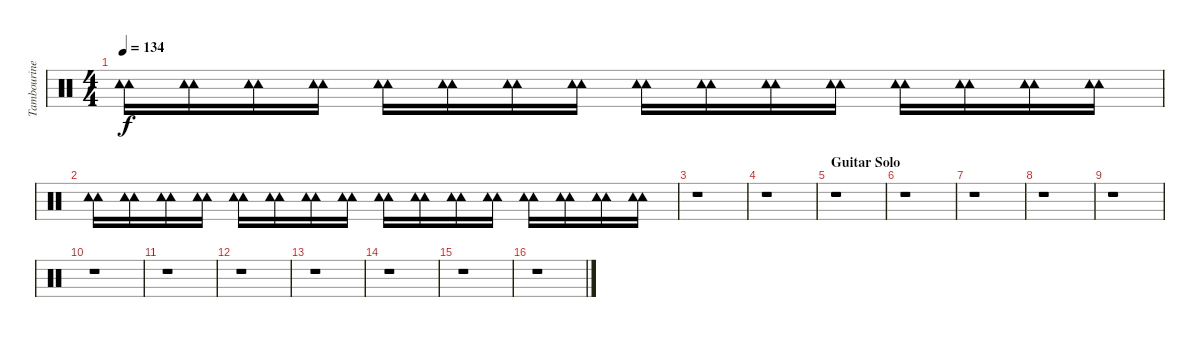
\track ("Tambourine" "Tambourine") {instrument percussion}
\staff {score}
\articulation defaults
\ts (4 4)
\tempo 134
\clef neutral
\ks c
("Tambourine (hit)" "Tambourine (hit)").16{dy f} ("Tambourine (hit)" "Tambourine (hit)").16 ("Tambourine (hit)" "Tambourine (hit)").16 ("Tambourine (hit)" "Tambourine (hit)").16 ("Tambourine (hit)" "Tambourine (hit)").16 ("Tambourine (hit)" "Tambourine (hit)").16 ("Tambourine (hit)" "Tambourine (hit)").16 ("Tambourine (hit)" "Tambourine (hit)").16 ("Tambourine (hit)" "Tambourine (hit)").16 ("Tambourine (hit)" "Tambourine (hit)").16 ("Tambourine (hit)" "Tambourine (hit)").16 ("Tambourine (hit)" "Tambourine (hit)").16 ("Tambourine (hit)" "Tambourine (hit)").16 ("Tambourine (hit)" "Tambourine (hit)").16 ("Tambourine (hit)" "Tambourine (hit)").16 ("Tambourine (hit)" "Tambourine (hit)").16 |
("Tambourine (hit)" "Tambourine (hit)").16 ("Tambourine (hit)" "Tambourine (hit)").16 ("Tambourine (hit)" "Tambourine (hit)").16 ("Tambourine (hit)" "Tambourine (hit)").16 ("Tambourine (hit)" "Tambourine (hit)").16 ("Tambourine (hit)" "Tambourine (hit)").16 ("Tambourine (hit)" "Tambourine (hit)").16 ("Tambourine (hit)" "Tambourine (hit)").16 ("Tambourine (hit)" "Tambourine (hit)").16 ("Tambourine (hit)" "Tambourine (hit)").16 ("Tambourine (hit)" "Tambourine (hit)").16 ("Tambourine (hit)" "Tambourine (hit)").16 ("Tambourine (hit)" "Tambourine (hit)").16 ("Tambourine (hit)" "Tambourine (hit)").16 ("Tambourine (hit)" "Tambourine (hit)").16 ("Tambourine (hit)" "Tambourine (hit)").16 |
r.1 |
r.1 |
\section ("" "Guitar Solo")
r.1 |
r.1 |
r.1 |
r.1 |
r.1 |
r.1 |
r.1 |
r.1 |
r.1 |
r.1 |
r.1 |
r.1
